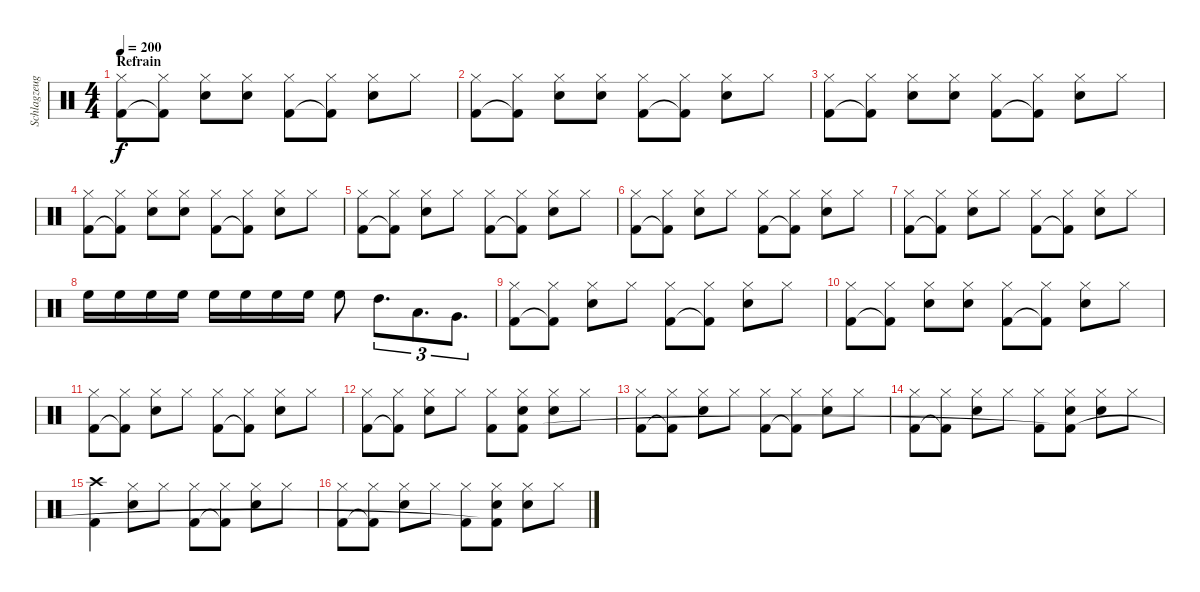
\track ("Schlagzeug" "Schlagzeug") {instrument percussion}
\staff {score}
\articulation defaults
\ts (4 4)
\section ("" "Refrain")
\tempo 200
\clef neutral
\ks c
("Hi-Hat (closed)" "Kick (hit) 2").8{dy f} ("Hi-Hat (closed)" "Kick (hit) 2"{t}).8 ("Hi-Hat (closed)" "Electric Snare (hit)").8 ("Hi-Hat (closed)" "Electric Snare (hit)").8 ("Hi-Hat (closed)" "Kick (hit) 2").8 ("Hi-Hat (closed)" "Kick (hit) 2"{t}).8 ("Hi-Hat (closed)" "Electric Snare (hit)").8 "Hi-Hat (closed)".8 |
("Hi-Hat (closed)" "Kick (hit) 2").8 ("Hi-Hat (closed)" "Kick (hit) 2"{t}).8 ("Hi-Hat (closed)" "Electric Snare (hit)").8 ("Hi-Hat (closed)" "Electric Snare (hit)").8 ("Hi-Hat (closed)" "Kick (hit) 2").8 ("Hi-Hat (closed)" "Kick (hit) 2"{t}).8 ("Hi-Hat (closed)" "Electric Snare (hit)").8 "Hi-Hat (closed)".8 |
("Hi-Hat (closed)" "Kick (hit) 2").8 ("Hi-Hat (closed)" "Kick (hit) 2"{t}).8 ("Hi-Hat (closed)" "Electric Snare (hit)").8 ("Hi-Hat (closed)" "Electric Snare (hit)").8 ("Hi-Hat (closed)" "Kick (hit) 2").8 ("Hi-Hat (closed)" "Kick (hit) 2"{t}).8 ("Hi-Hat (closed)" "Electric Snare (hit)").8 "Hi-Hat (closed)".8 |
("Hi-Hat (closed)" "Kick (hit) 2").8 ("Hi-Hat (closed)" "Kick (hit) 2"{t}).8 ("Hi-Hat (closed)" "Electric Snare (hit)").8 ("Hi-Hat (closed)" "Electric Snare (hit)").8 ("Hi-Hat (closed)" "Kick (hit) 2").8 ("Hi-Hat (closed)" "Kick (hit) 2"{t}).8 ("Hi-Hat (closed)" "Electric Snare (hit)").8 "Hi-Hat (closed)".8 |
("Hi-Hat (closed)" "Kick (hit) 2").8 ("Hi-Hat (closed)" "Kick (hit) 2"{t}).8 ("Hi-Hat (closed)" "Electric Snare (hit)").8 "Hi-Hat (closed)".8 ("Hi-Hat (closed)" "Kick (hit) 2").8 ("Hi-Hat (closed)" "Kick (hit) 2"{t}).8 ("Hi-Hat (closed)" "Electric Snare (hit)").8 "Hi-Hat (closed)".8 |
("Hi-Hat (closed)" "Kick (hit) 2").8 ("Hi-Hat (closed)" "Kick (hit) 2"{t}).8 ("Hi-Hat (closed)" "Electric Snare (hit)").8 "Hi-Hat (closed)".8 ("Hi-Hat (closed)" "Kick (hit) 2").8 ("Hi-Hat (closed)" "Kick (hit) 2"{t}).8 ("Hi-Hat (closed)" "Electric Snare (hit)").8 "Hi-Hat (closed)".8 |
("Hi-Hat (closed)" "Kick (hit) 2").8 ("Hi-Hat (closed)" "Kick (hit) 2"{t}).8 ("Hi-Hat (closed)" "Electric Snare (hit)").8 "Hi-Hat (closed)".8 ("Hi-Hat (closed)" "Kick (hit) 2").8 ("Hi-Hat (closed)" "Kick (hit) 2"{t}).8 ("Hi-Hat (closed)" "Electric Snare (hit)").8 "Hi-Hat (closed)".8 |
"High Floor Tom (hit)".16 "High Floor Tom (hit)".16 "High Floor Tom (hit)".16 "High Floor Tom (hit)".16 "High Floor Tom (hit)".16 "High Floor Tom (hit)".16 "High Floor Tom (hit)".16 "High Floor Tom (hit)".16 "High Floor Tom (hit)".8 "High Tom (hit)".8{d tu (3 2)} "Low Tom (hit)".8{d tu (3 2)} "Very Low Tom (hit)".8{d tu (3 2)} |
("Hi-Hat (closed)" "Kick (hit) 2").8 ("Hi-Hat (closed)" "Kick (hit) 2"{t}).8 ("Hi-Hat (closed)" "Electric Snare (hit)").8 "Hi-Hat (closed)".8 ("Hi-Hat (closed)" "Kick (hit) 2").8 ("Hi-Hat (closed)" "Kick (hit) 2"{t}).8 ("Hi-Hat (closed)" "Electric Snare (hit)").8 "Hi-Hat (closed)".8 |
("Hi-Hat (closed)" "Kick (hit) 2").8 ("Hi-Hat (closed)" "Kick (hit) 2"{t}).8 ("Hi-Hat (closed)" "Electric Snare (hit)").8 ("Hi-Hat (closed)" "Electric Snare (hit)").8 ("Hi-Hat (closed)" "Kick (hit) 2").8 ("Hi-Hat (closed)" "Kick (hit) 2"{t}).8 ("Hi-Hat (closed)" "Electric Snare (hit)").8 "Hi-Hat (closed)".8 |
("Hi-Hat (closed)" "Kick (hit) 2").8 ("Hi-Hat (closed)" "Kick (hit) 2"{t}).8 ("Hi-Hat (closed)" "Electric Snare (hit)").8 "Hi-Hat (closed)".8 ("Hi-Hat (closed)" "Kick (hit) 2").8 ("Hi-Hat (closed)" "Kick (hit) 2"{t}).8 ("Hi-Hat (closed)" "Electric Snare (hit)").8 "Hi-Hat (closed)".8 |
("Hi-Hat (closed)" "Kick (hit) 2").8 ("Hi-Hat (closed)" "Kick (hit) 2"{t}).8 ("Hi-Hat (closed)" "Electric Snare (hit)").8 "Hi-Hat (closed)".8 ("Hi-Hat (closed)" "Kick (hit) 2").8 ("Hi-Hat (closed)" "Electric Snare (hit)" "Kick (hit) 2").8 ("Hi-Hat (closed)" "Electric Snare (hit)").8 "Hi-Hat (closed)".8 |
("Hi-Hat (closed)" "Kick (hit) 2").8 ("Hi-Hat (closed)" "Kick (hit) 2"{t}).8 ("Hi-Hat (closed)" "Electric Snare (hit)").8 "Hi-Hat (closed)".8 ("Hi-Hat (closed)" "Kick (hit) 2").8 ("Hi-Hat (closed)" "Kick (hit) 2"{t}).8 ("Hi-Hat (closed)" "Electric Snare (hit)").8 "Hi-Hat (closed)".8 |
("Hi-Hat (closed)" "Kick (hit) 2").8 ("Hi-Hat (closed)" "Kick (hit) 2"{t}).8 ("Hi-Hat (closed)" "Electric Snare (hit)").8 "Hi-Hat (closed)".8 ("Hi-Hat (closed)" "Kick (hit) 2").8 ("Hi-Hat (closed)" "Electric Snare (hit)" "Kick (hit) 2"{t}).8 ("Hi-Hat (closed)" "Electric Snare (hit)").8 "Hi-Hat (closed)".8 |
("Crash high (hit)" "Kick (hit) 2").4 ("Hi-Hat (closed)" "Electric Snare (hit)").8 "Hi-Hat (closed)".8 ("Hi-Hat (closed)" "Kick (hit) 2").8 ("Hi-Hat (closed)" "Kick (hit) 2"{t}).8 ("Hi-Hat (closed)" "Electric Snare (hit)").8 "Hi-Hat (closed)".8 |
("Hi-Hat (closed)" "Kick (hit) 2").8 ("Hi-Hat (closed)" "Kick (hit) 2"{t}).8 ("Hi-Hat (closed)" "Electric Snare (hit)").8 "Hi-Hat (closed)".8 ("Hi-Hat (closed)" "Kick (hit) 2").8 ("Hi-Hat (closed)" "Electric Snare (hit)" "Kick (hit) 2"{t}).8 ("Hi-Hat (closed)" "Electric Snare (hit)").8 "Hi-Hat (closed)".8
